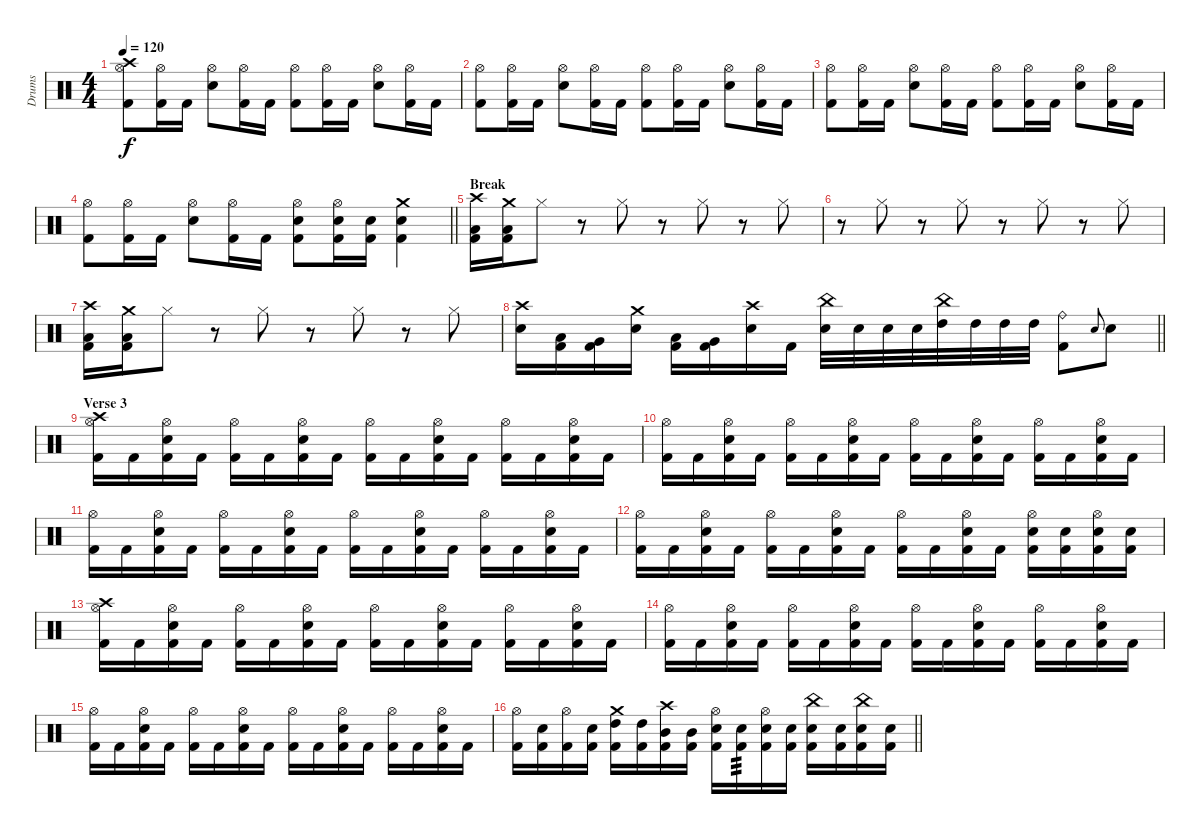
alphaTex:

\track ("Drums" "Drums") {instrument percussion}
\staff {score}
\articulation defaults
\ts (4 4)
\tempo 120
\clef neutral
\ks c
("Crash high (hit)" "Hi-Hat (open)" "Kick (hit) 2").8{dy f} ("Hi-Hat (open)" "Kick (hit) 2").16 "Kick (hit) 2".16 ("Hi-Hat (open)" "Snare (hit) 2").8 ("Hi-Hat (open)" "Kick (hit) 2").16 "Kick (hit) 2".16 ("Hi-Hat (open)" "Kick (hit) 2").8 ("Hi-Hat (open)" "Kick (hit) 2").16 "Kick (hit) 2".16 ("Hi-Hat (open)" "Snare (hit) 2").8 ("Hi-Hat (open)" "Kick (hit) 2").16 "Kick (hit) 2".16 |
("Hi-Hat (open)" "Kick (hit) 2").8 ("Hi-Hat (open)" "Kick (hit) 2").16 "Kick (hit) 2".16 ("Hi-Hat (open)" "Snare (hit) 2").8 ("Hi-Hat (open)" "Kick (hit) 2").16 "Kick (hit) 2".16 ("Hi-Hat (open)" "Kick (hit) 2").8 ("Hi-Hat (open)" "Kick (hit) 2").16 "Kick (hit) 2".16 ("Hi-Hat (open)" "Snare (hit) 2").8 ("Hi-Hat (open)" "Kick (hit) 2").16 "Kick (hit) 2".16 |
("Hi-Hat (open)" "Kick (hit) 2").8 ("Hi-Hat (open)" "Kick (hit) 2").16 "Kick (hit) 2".16 ("Hi-Hat (open)" "Snare (hit) 2").8 ("Hi-Hat (open)" "Kick (hit) 2").16 "Kick (hit) 2".16 ("Hi-Hat (open)" "Kick (hit) 2").8 ("Hi-Hat (open)" "Kick (hit) 2").16 "Kick (hit) 2".16 ("Hi-Hat (open)" "Snare (hit) 2").8 ("Hi-Hat (open)" "Kick (hit) 2").16 "Kick (hit) 2".16 |
\barLineRight lightlight
("Hi-Hat (open)" "Kick (hit) 2").8 ("Hi-Hat (open)" "Kick (hit) 2").16 "Kick (hit) 2".16 ("Hi-Hat (open)" "Snare (hit) 2").8 ("Hi-Hat (open)" "Kick (hit) 2").16 "Kick (hit) 2".16 ("Hi-Hat (open)" "Snare (hit) 2" "Kick (hit) 2").8 ("Hi-Hat (open)" "Snare (hit) 2" "Kick (hit) 2").16 ("Snare (hit) 2" "Kick (hit) 2").16 ("Crash medium (hit)" "Snare (hit) 2" "Kick (hit) 2").4 |
\section ("" "Break")
("Crash high (hit)" "Low Floor Tom (hit)" "Kick (hit) 2").16 ("Crash medium (hit)" "Low Floor Tom (hit)" "Kick (hit) 2").16 "Hi-Hat (closed)".8 r.8 "Hi-Hat (closed)".8 r.8 "Hi-Hat (closed)".8 r.8 "Hi-Hat (closed)".8 |
r.8 "Hi-Hat (closed)".8 r.8 "Hi-Hat (closed)".8 r.8 "Hi-Hat (closed)".8 r.8 "Hi-Hat (closed)".8 |
("Crash high (hit)" "Low Floor Tom (hit)" "Kick (hit) 2").16 ("Crash medium (hit)" "Low Floor Tom (hit)" "Kick (hit) 2").16 "Hi-Hat (closed)".8 r.8 "Hi-Hat (closed)".8 r.8 "Hi-Hat (closed)".8 r.8 "Hi-Hat (closed)".8 |
\barLineRight lightlight
("Crash high (hit)" "Snare (hit) 2").16 ("Low Tom (hit)" "Kick (hit) 2").16 ("Very Low Tom (hit)" "Kick (hit) 2").16 ("Crash medium (hit)" "Snare (hit) 2").16 ("Low Tom (hit)" "Kick (hit) 2").16 ("Very Low Tom (hit)" "Kick (hit) 2").16 ("Crash high (hit)" "Snare (hit) 2").16 "Kick (hit) 2".16 ("China (hit)" "Snare (hit) 2").32 "Snare (hit) 2".32 "Snare (hit) 2".32 "Snare (hit) 2".32 ("China (hit)" "High Tom (hit)").32 "High Tom (hit)".32 "High Tom (hit)".32 "High Tom (hit)".32 ("Ride (bell)" "Kick (hit) 2").8 "Snare (hit) 2".8{gr onbeat} "Snare (hit) 2".8 |
\section ("" "Verse 3")
("Crash high (hit)" "Hi-Hat (open)" "Kick (hit) 2").16 "Kick (hit) 2".16 ("Hi-Hat (open)" "Snare (hit) 2" "Kick (hit) 2").16 "Kick (hit) 2".16 ("Hi-Hat (open)" "Kick (hit) 2").16 "Kick (hit) 2".16 ("Hi-Hat (open)" "Snare (hit) 2" "Kick (hit) 2").16 "Kick (hit) 2".16 ("Hi-Hat (open)" "Kick (hit) 2").16 "Kick (hit) 2".16 ("Hi-Hat (open)" "Snare (hit) 2" "Kick (hit) 2").16 "Kick (hit) 2".16 ("Hi-Hat (open)" "Kick (hit) 2").16 "Kick (hit) 2".16 ("Hi-Hat (open)" "Snare (hit) 2" "Kick (hit) 2").16 "Kick (hit) 2".16 |
("Hi-Hat (open)" "Kick (hit) 2").16 "Kick (hit) 2".16 ("Hi-Hat (open)" "Snare (hit) 2" "Kick (hit) 2").16 "Kick (hit) 2".16 ("Hi-Hat (open)" "Kick (hit) 2").16 "Kick (hit) 2".16 ("Hi-Hat (open)" "Snare (hit) 2" "Kick (hit) 2").16 "Kick (hit) 2".16 ("Hi-Hat (open)" "Kick (hit) 2").16 "Kick (hit) 2".16 ("Hi-Hat (open)" "Snare (hit) 2" "Kick (hit) 2").16 "Kick (hit) 2".16 ("Hi-Hat (open)" "Kick (hit) 2").16 "Kick (hit) 2".16 ("Hi-Hat (open)" "Snare (hit) 2" "Kick (hit) 2").16 "Kick (hit) 2".16 |
("Hi-Hat (open)" "Kick (hit) 2").16 "Kick (hit) 2".16 ("Hi-Hat (open)" "Snare (hit) 2" "Kick (hit) 2").16 "Kick (hit) 2".16 ("Hi-Hat (open)" "Kick (hit) 2").16 "Kick (hit) 2".16 ("Hi-Hat (open)" "Snare (hit) 2" "Kick (hit) 2").16 "Kick (hit) 2".16 ("Hi-Hat (open)" "Kick (hit) 2").16 "Kick (hit) 2".16 ("Hi-Hat (open)" "Snare (hit) 2" "Kick (hit) 2").16 "Kick (hit) 2".16 ("Hi-Hat (open)" "Kick (hit) 2").16 "Kick (hit) 2".16 ("Hi-Hat (open)" "Snare (hit) 2" "Kick (hit) 2").16 "Kick (hit) 2".16 |
("Hi-Hat (open)" "Kick (hit) 2").16 "Kick (hit) 2".16 ("Hi-Hat (open)" "Snare (hit) 2" "Kick (hit) 2").16 "Kick (hit) 2".16 ("Hi-Hat (open)" "Kick (hit) 2").16 "Kick (hit) 2".16 ("Hi-Hat (open)" "Snare (hit) 2" "Kick (hit) 2").16 "Kick (hit) 2".16 ("Hi-Hat (open)" "Kick (hit) 2").16 "Kick (hit) 2".16 ("Hi-Hat (open)" "Snare (hit) 2" "Kick (hit) 2").16 "Kick (hit) 2".16 ("Hi-Hat (open)" "Snare (hit) 2" "Kick (hit) 2").16 ("Snare (hit) 2" "Kick (hit) 2").16 ("Hi-Hat (open)" "Snare (hit) 2" "Kick (hit) 2").16 ("Snare (hit) 2" "Kick (hit) 2").16 |
("Crash high (hit)" "Hi-Hat (open)" "Kick (hit) 2").16 "Kick (hit) 2".16 ("Hi-Hat (open)" "Snare (hit) 2" "Kick (hit) 2").16 "Kick (hit) 2".16 ("Hi-Hat (open)" "Kick (hit) 2").16 "Kick (hit) 2".16 ("Hi-Hat (open)" "Snare (hit) 2" "Kick (hit) 2").16 "Kick (hit) 2".16 ("Hi-Hat (open)" "Kick (hit) 2").16 "Kick (hit) 2".16 ("Hi-Hat (open)" "Snare (hit) 2" "Kick (hit) 2").16 "Kick (hit) 2".16 ("Hi-Hat (open)" "Kick (hit) 2").16 "Kick (hit) 2".16 ("Hi-Hat (open)" "Snare (hit) 2" "Kick (hit) 2").16 "Kick (hit) 2".16 |
("Hi-Hat (open)" "Kick (hit) 2").16 "Kick (hit) 2".16 ("Hi-Hat (open)" "Snare (hit) 2" "Kick (hit) 2").16 "Kick (hit) 2".16 ("Hi-Hat (open)" "Kick (hit) 2").16 "Kick (hit) 2".16 ("Hi-Hat (open)" "Snare (hit) 2" "Kick (hit) 2").16 "Kick (hit) 2".16 ("Hi-Hat (open)" "Kick (hit) 2").16 "Kick (hit) 2".16 ("Hi-Hat (open)" "Snare (hit) 2" "Kick (hit) 2").16 "Kick (hit) 2".16 ("Hi-Hat (open)" "Kick (hit) 2").16 "Kick (hit) 2".16 ("Hi-Hat (open)" "Snare (hit) 2" "Kick (hit) 2").16 "Kick (hit) 2".16 |
("Hi-Hat (open)" "Kick (hit) 2").16 "Kick (hit) 2".16 ("Hi-Hat (open)" "Snare (hit) 2" "Kick (hit) 2").16 "Kick (hit) 2".16 ("Hi-Hat (open)" "Kick (hit) 2").16 "Kick (hit) 2".16 ("Hi-Hat (open)" "Snare (hit) 2" "Kick (hit) 2").16 "Kick (hit) 2".16 ("Hi-Hat (open)" "Kick (hit) 2").16 "Kick (hit) 2".16 ("Hi-Hat (open)" "Snare (hit) 2" "Kick (hit) 2").16 "Kick (hit) 2".16 ("Hi-Hat (open)" "Kick (hit) 2").16 "Kick (hit) 2".16 ("Hi-Hat (open)" "Snare (hit) 2" "Kick (hit) 2").16 "Kick (hit) 2".16 |
\barLineRight lightlight
("Hi-Hat (open)" "Kick (hit) 2").16 ("Snare (hit) 2" "Kick (hit) 2").16 ("Hi-Hat (open)" "Kick (hit) 2").16 ("Snare (hit) 2" "Kick (hit) 2").16 ("Crash medium (hit)" "High Tom (hit)" "Kick (hit) 2").16 ("High Tom (hit)" "Kick (hit) 2").16 ("Crash high (hit)" "Mid Tom (hit)" "Kick (hit) 2").16 ("Mid Tom (hit)" "Kick (hit) 2").16 ("Hi-Hat (open)" "Snare (hit) 2" "Kick (hit) 2").16 ("Snare (hit) 2" "Kick (hit) 2").16{tp 3} ("Hi-Hat (open)" "Snare (hit) 2" "Kick (hit) 2").16 ("Snare (hit) 2" "Kick (hit) 2").16 ("China (hit)" "Snare (hit) 2" "Kick (hit) 2").16 ("Snare (hit) 2" "Kick (hit) 2").16 ("China (hit)" "Snare (hit) 2" "Kick (hit) 2").16 ("Snare (hit) 2" "Kick (hit) 2").16
